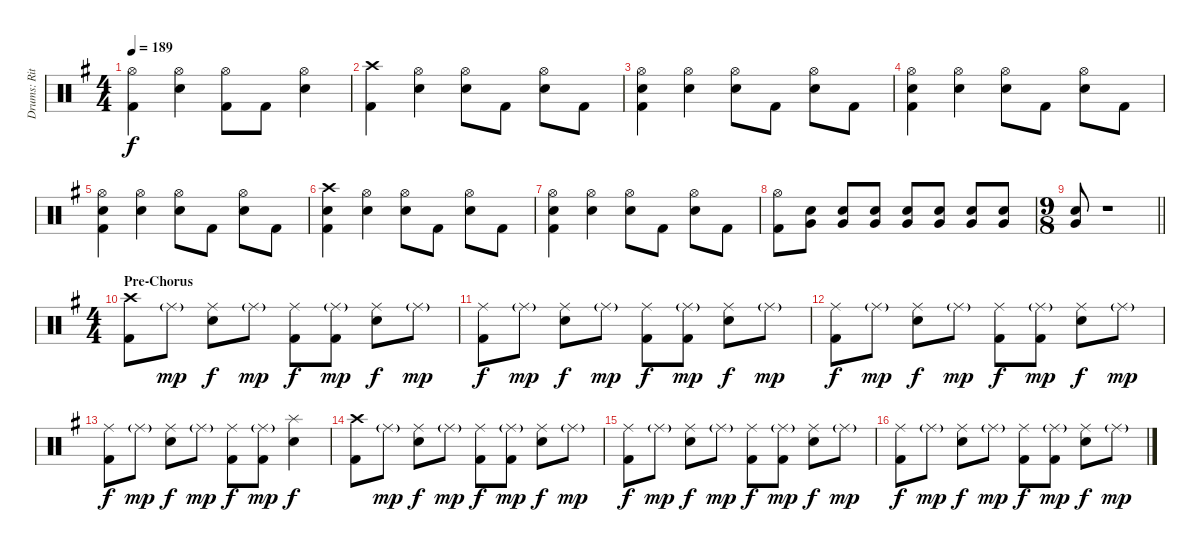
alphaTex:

\track ("Drums: Ritsu Tainaka" "Drums: Rit") {instrument percussion}
\staff {score}
\articulation defaults
\ts (4 4)
\tempo 189
\clef neutral
\ks g
("Hi-Hat (open)" "Kick (hit) 2").4{dy f} ("Hi-Hat (open)" "Electric Snare (hit)").4 ("Hi-Hat (open)" "Kick (hit) 2").8 "Kick (hit) 2".8 ("Hi-Hat (open)" "Electric Snare (hit)").4 |
("Crash high (hit)" "Kick (hit) 2").4 ("Hi-Hat (open)" "Electric Snare (hit)").4 ("Hi-Hat (open)" "Electric Snare (hit)").8 "Kick (hit) 2".8 ("Hi-Hat (open)" "Electric Snare (hit)").8 "Kick (hit) 2".8 |
("Hi-Hat (open)" "Electric Snare (hit)" "Kick (hit) 2").4 ("Hi-Hat (open)" "Electric Snare (hit)").4 ("Hi-Hat (open)" "Electric Snare (hit)").8 "Kick (hit) 2".8 ("Hi-Hat (open)" "Electric Snare (hit)").8 "Kick (hit) 2".8 |
("Hi-Hat (open)" "Electric Snare (hit)" "Kick (hit) 2").4 ("Hi-Hat (open)" "Electric Snare (hit)").4 ("Hi-Hat (open)" "Electric Snare (hit)").8 "Kick (hit) 2".8 ("Hi-Hat (open)" "Electric Snare (hit)").8 "Kick (hit) 2".8 |
("Hi-Hat (open)" "Electric Snare (hit)" "Kick (hit) 2").4 ("Hi-Hat (open)" "Electric Snare (hit)").4 ("Hi-Hat (open)" "Electric Snare (hit)").8 "Kick (hit) 2".8 ("Hi-Hat (open)" "Electric Snare (hit)").8 "Kick (hit) 2".8 |
("Crash high (hit)" "Electric Snare (hit)" "Kick (hit) 2").4 ("Hi-Hat (open)" "Electric Snare (hit)").4 ("Hi-Hat (open)" "Electric Snare (hit)").8 "Kick (hit) 2".8 ("Hi-Hat (open)" "Electric Snare (hit)").8 "Kick (hit) 2".8 |
("Hi-Hat (open)" "Electric Snare (hit)" "Kick (hit) 2").4 ("Hi-Hat (open)" "Electric Snare (hit)").4 ("Hi-Hat (open)" "Electric Snare (hit)").8 "Kick (hit) 2".8 ("Hi-Hat (open)" "Electric Snare (hit)").8 "Kick (hit) 2".8 |
("Hi-Hat (open)" "Kick (hit) 2").8 ("Electric Snare (hit)" "Very Low Tom (hit)").8 ("Electric Snare (hit)" "Very Low Tom (hit)").8 ("Electric Snare (hit)" "Very Low Tom (hit)").8 ("Electric Snare (hit)" "Very Low Tom (hit)").8 ("Electric Snare (hit)" "Very Low Tom (hit)").8 ("Electric Snare (hit)" "Very Low Tom (hit)").8 ("Electric Snare (hit)" "Very Low Tom (hit)").8 |
\ts (9 8)
\barLineRight lightlight
("Electric Snare (hit)" "Very Low Tom (hit)").8 r.1 |
\ts (4 4)
\section ("" "Pre-Chorus")
("Crash high (hit)" "Kick (hit) 2").8 "Ride (middle)"{g}.8{dy mp} ("Ride (middle)" "Electric Snare (hit)").8{dy f} "Ride (middle)"{g}.8{dy mp} ("Ride (middle)" "Kick (hit) 2").8{dy f} ("Ride (middle)"{g} "Kick (hit) 2").8{dy mp} ("Ride (middle)" "Electric Snare (hit)").8{dy f} "Ride (middle)"{g}.8{dy mp} |
("Ride (middle)" "Kick (hit) 2").8{dy f} "Ride (middle)"{g}.8{dy mp} ("Ride (middle)" "Electric Snare (hit)").8{dy f} "Ride (middle)"{g}.8{dy mp} ("Ride (middle)" "Kick (hit) 2").8{dy f} ("Ride (middle)"{g} "Kick (hit) 2").8{dy mp} ("Ride (middle)" "Electric Snare (hit)").8{dy f} "Ride (middle)"{g}.8{dy mp} |
("Ride (middle)" "Kick (hit) 2").8{dy f} "Ride (middle)"{g}.8{dy mp} ("Ride (middle)" "Electric Snare (hit)").8{dy f} "Ride (middle)"{g}.8{dy mp} ("Ride (middle)" "Kick (hit) 2").8{dy f} ("Ride (middle)"{g} "Kick (hit) 2").8{dy mp} ("Ride (middle)" "Electric Snare (hit)").8{dy f} "Ride (middle)"{g}.8{dy mp} |
("Ride (middle)" "Kick (hit) 2").8{dy f} "Ride (middle)"{g}.8{dy mp} ("Ride (middle)" "Electric Snare (hit)").8{dy f} "Ride (middle)"{g}.8{dy mp} ("Ride (middle)" "Kick (hit) 2").8{dy f} ("Ride (middle)"{g} "Kick (hit) 2").8{dy mp} ("Splash (hit)" "Electric Snare (hit)").4{dy f} |
("Crash high (hit)" "Kick (hit) 2").8 "Ride (middle)"{g}.8{dy mp} ("Ride (middle)" "Electric Snare (hit)").8{dy f} "Ride (middle)"{g}.8{dy mp} ("Ride (middle)" "Kick (hit) 2").8{dy f} ("Ride (middle)"{g} "Kick (hit) 2").8{dy mp} ("Ride (middle)" "Electric Snare (hit)").8{dy f} "Ride (middle)"{g}.8{dy mp} |
("Ride (middle)" "Kick (hit) 2").8{dy f} "Ride (middle)"{g}.8{dy mp} ("Ride (middle)" "Electric Snare (hit)").8{dy f} "Ride (middle)"{g}.8{dy mp} ("Ride (middle)" "Kick (hit) 2").8{dy f} ("Ride (middle)"{g} "Kick (hit) 2").8{dy mp} ("Ride (middle)" "Electric Snare (hit)").8{dy f} "Ride (middle)"{g}.8{dy mp} |
("Ride (middle)" "Kick (hit) 2").8{dy f} "Ride (middle)"{g}.8{dy mp} ("Ride (middle)" "Electric Snare (hit)").8{dy f} "Ride (middle)"{g}.8{dy mp} ("Ride (middle)" "Kick (hit) 2").8{dy f} ("Ride (middle)"{g} "Kick (hit) 2").8{dy mp} ("Ride (middle)" "Electric Snare (hit)").8{dy f} "Ride (middle)"{g}.8{dy mp}
